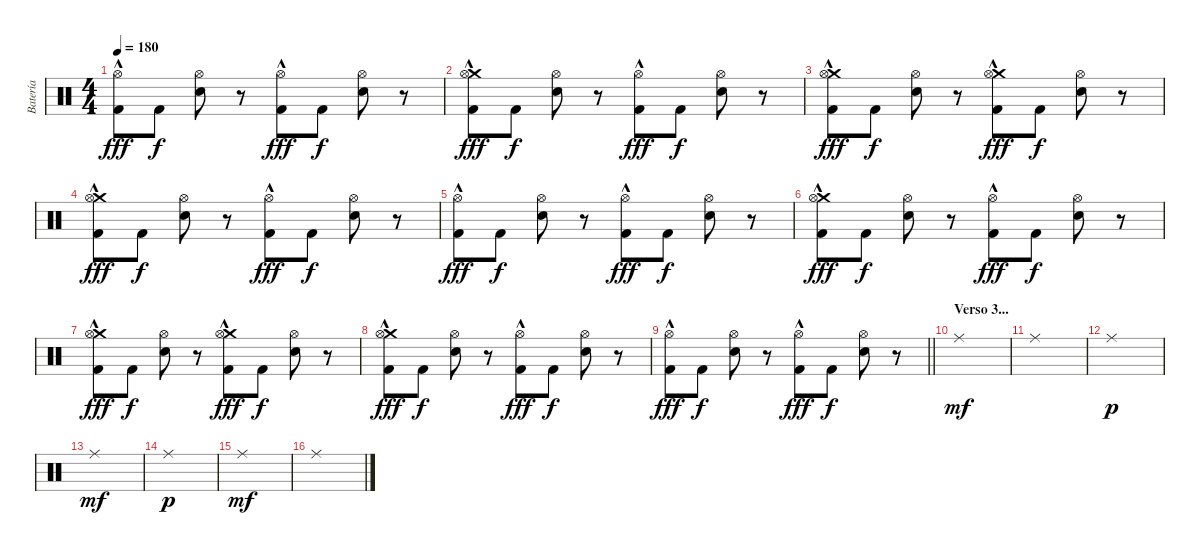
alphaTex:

\track ("Batería" "Batería") {instrument percussion}
\staff {score}
\articulation defaults
\ts (4 4)
\tempo 180
\clef neutral
\ks c
("Hi-Hat (open)" "Kick (hit) 2"{hac}).8{dy fff} "Kick (hit) 2".8{dy f} ("Snare (hit) 2" "Hi-Hat (open)").8 r.8 ("Hi-Hat (open)" "Kick (hit) 2"{hac}).8{dy fff} "Kick (hit) 2".8{dy f} ("Snare (hit) 2" "Hi-Hat (open)").8 r.8 |
("Crash medium (hit)" "Hi-Hat (open)" "Kick (hit) 2"{hac}).8{dy fff} "Kick (hit) 2".8{dy f} ("Snare (hit) 2" "Hi-Hat (open)").8 r.8 ("Hi-Hat (open)" "Kick (hit) 2"{hac}).8{dy fff} "Kick (hit) 2".8{dy f} ("Snare (hit) 2" "Hi-Hat (open)").8 r.8 |
("Crash medium (hit)" "Hi-Hat (open)" "Kick (hit) 2"{hac}).8{dy fff} "Kick (hit) 2".8{dy f} ("Snare (hit) 2" "Hi-Hat (open)").8 r.8 ("Crash medium (hit)" "Hi-Hat (open)" "Kick (hit) 2"{hac}).8{dy fff} "Kick (hit) 2".8{dy f} ("Snare (hit) 2" "Hi-Hat (open)").8 r.8 |
("Crash medium (hit)" "Hi-Hat (open)" "Kick (hit) 2"{hac}).8{dy fff} "Kick (hit) 2".8{dy f} ("Snare (hit) 2" "Hi-Hat (open)").8 r.8 ("Hi-Hat (open)" "Kick (hit) 2"{hac}).8{dy fff} "Kick (hit) 2".8{dy f} ("Snare (hit) 2" "Hi-Hat (open)").8 r.8 |
("Hi-Hat (open)" "Kick (hit) 2"{hac}).8{dy fff} "Kick (hit) 2".8{dy f} ("Snare (hit) 2" "Hi-Hat (open)").8 r.8 ("Hi-Hat (open)" "Kick (hit) 2"{hac}).8{dy fff} "Kick (hit) 2".8{dy f} ("Snare (hit) 2" "Hi-Hat (open)").8 r.8 |
("Crash medium (hit)" "Hi-Hat (open)" "Kick (hit) 2"{hac}).8{dy fff} "Kick (hit) 2".8{dy f} ("Snare (hit) 2" "Hi-Hat (open)").8 r.8 ("Hi-Hat (open)" "Kick (hit) 2"{hac}).8{dy fff} "Kick (hit) 2".8{dy f} ("Snare (hit) 2" "Hi-Hat (open)").8 r.8 |
("Crash medium (hit)" "Hi-Hat (open)" "Kick (hit) 2"{hac}).8{dy fff} "Kick (hit) 2".8{dy f} ("Snare (hit) 2" "Hi-Hat (open)").8 r.8 ("Crash medium (hit)" "Hi-Hat (open)" "Kick (hit) 2"{hac}).8{dy fff} "Kick (hit) 2".8{dy f} ("Snare (hit) 2" "Hi-Hat (open)").8 r.8 |
("Crash medium (hit)" "Hi-Hat (open)" "Kick (hit) 2"{hac}).8{dy fff} "Kick (hit) 2".8{dy f} ("Snare (hit) 2" "Hi-Hat (open)").8 r.8 ("Hi-Hat (open)" "Kick (hit) 2"{hac}).8{dy fff} "Kick (hit) 2".8{dy f} ("Snare (hit) 2" "Hi-Hat (open)").8 r.8 |
\barLineRight lightlight
("Hi-Hat (open)" "Kick (hit) 2"{hac}).8{dy fff} "Kick (hit) 2".8{dy f} ("Snare (hit) 2" "Hi-Hat (open)").8 r.8 ("Hi-Hat (open)" "Kick (hit) 2"{hac}).8{dy fff} "Kick (hit) 2".8{dy f} ("Snare (hit) 2" "Hi-Hat (open)").8 r.8 |
\section ("" "Verso 3...")
"Ride (middle)".1{dy mf} |
"Ride (middle)".1 |
"Ride (middle)".1{dy p} |
"Ride (middle)".1{dy mf} |
"Ride (middle)".1{dy p} |
"Ride (middle)".1{dy mf} |
"Ride (middle)".1
